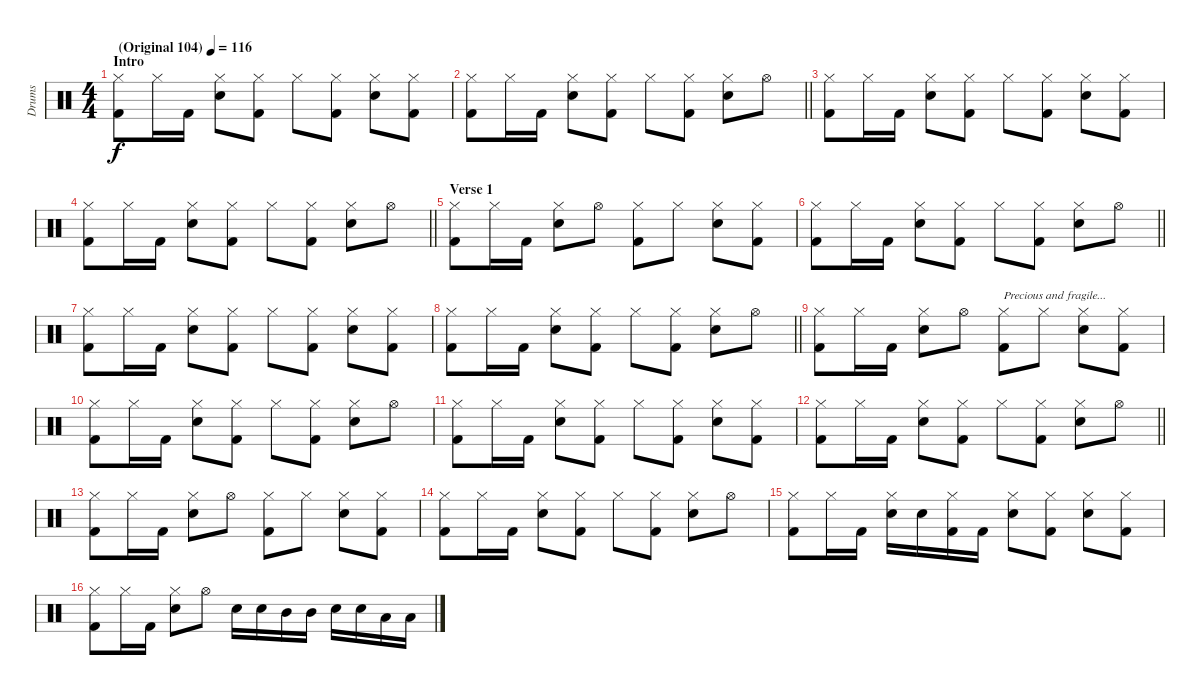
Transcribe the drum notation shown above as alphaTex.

\track ("Drums" "Drums") {instrument percussion}
\staff {score}
\articulation defaults
\ts (4 4)
\section ("" "Intro")
\tempo (116 "(Original 104)")
\clef neutral
\ks c
("Hi-Hat (closed)" "Kick (hit) 2").8{dy f} "Hi-Hat (closed)".16 "Kick (hit) 2".16 ("Hi-Hat (closed)" "Snare (hit) 2").8 ("Hi-Hat (closed)" "Kick (hit) 2").8 "Hi-Hat (closed)".8 ("Hi-Hat (closed)" "Kick (hit) 2").8 ("Hi-Hat (closed)" "Snare (hit) 2").8 ("Hi-Hat (closed)" "Kick (hit) 2").8 |
\barLineRight lightlight
("Hi-Hat (closed)" "Kick (hit) 2").8 "Hi-Hat (closed)".16 "Kick (hit) 2".16 ("Hi-Hat (closed)" "Snare (hit) 2").8 ("Hi-Hat (closed)" "Kick (hit) 2").8 "Hi-Hat (closed)".8 ("Hi-Hat (closed)" "Kick (hit) 2").8 ("Hi-Hat (closed)" "Snare (hit) 2").8 "Hi-Hat (open)".8 |
\section ("" "")
("Hi-Hat (closed)" "Kick (hit) 2").8 "Hi-Hat (closed)".16 "Kick (hit) 2".16 ("Hi-Hat (closed)" "Snare (hit) 2").8 ("Hi-Hat (closed)" "Kick (hit) 2").8 "Hi-Hat (closed)".8 ("Hi-Hat (closed)" "Kick (hit) 2").8 ("Hi-Hat (closed)" "Snare (hit) 2").8 ("Hi-Hat (closed)" "Kick (hit) 2").8 |
\barLineRight lightlight
("Hi-Hat (closed)" "Kick (hit) 2").8 "Hi-Hat (closed)".16 "Kick (hit) 2".16 ("Hi-Hat (closed)" "Snare (hit) 2").8 ("Hi-Hat (closed)" "Kick (hit) 2").8 "Hi-Hat (closed)".8 ("Hi-Hat (closed)" "Kick (hit) 2").8 ("Hi-Hat (closed)" "Snare (hit) 2").8 "Hi-Hat (open)".8 |
\section ("" "Verse 1")
("Hi-Hat (closed)" "Kick (hit) 2").8 "Hi-Hat (closed)".16 "Kick (hit) 2".16 ("Hi-Hat (closed)" "Snare (hit) 2").8 "Hi-Hat (open)".8 ("Hi-Hat (closed)" "Kick (hit) 2").8 "Hi-Hat (closed)".8 ("Hi-Hat (closed)" "Snare (hit) 2").8 ("Hi-Hat (closed)" "Kick (hit) 2").8 |
\barLineRight lightlight
("Hi-Hat (closed)" "Kick (hit) 2").8 "Hi-Hat (closed)".16 "Kick (hit) 2".16 ("Hi-Hat (closed)" "Snare (hit) 2").8 ("Hi-Hat (closed)" "Kick (hit) 2").8 "Hi-Hat (closed)".8 ("Hi-Hat (closed)" "Kick (hit) 2").8 ("Hi-Hat (closed)" "Snare (hit) 2").8 "Hi-Hat (open)".8 |
("Hi-Hat (closed)" "Kick (hit) 2").8 "Hi-Hat (closed)".16 "Kick (hit) 2".16 ("Hi-Hat (closed)" "Snare (hit) 2").8 ("Hi-Hat (closed)" "Kick (hit) 2").8 "Hi-Hat (closed)".8 ("Hi-Hat (closed)" "Kick (hit) 2").8 ("Hi-Hat (closed)" "Snare (hit) 2").8 ("Hi-Hat (closed)" "Kick (hit) 2").8 |
\barLineRight lightlight
("Hi-Hat (closed)" "Kick (hit) 2").8 "Hi-Hat (closed)".16 "Kick (hit) 2".16 ("Hi-Hat (closed)" "Snare (hit) 2").8 ("Hi-Hat (closed)" "Kick (hit) 2").8 "Hi-Hat (closed)".8 ("Hi-Hat (closed)" "Kick (hit) 2").8 ("Hi-Hat (closed)" "Snare (hit) 2").8 "Hi-Hat (open)".8 |
\section ("" "")
("Hi-Hat (closed)" "Kick (hit) 2").8 "Hi-Hat (closed)".16 "Kick (hit) 2".16 ("Hi-Hat (closed)" "Snare (hit) 2").8 "Hi-Hat (open)".8 ("Hi-Hat (closed)" "Kick (hit) 2").8{txt "Precious and fragile..."} "Hi-Hat (closed)".8 ("Hi-Hat (closed)" "Snare (hit) 2").8 ("Hi-Hat (closed)" "Kick (hit) 2").8 |
("Hi-Hat (closed)" "Kick (hit) 2").8 "Hi-Hat (closed)".16 "Kick (hit) 2".16 ("Hi-Hat (closed)" "Snare (hit) 2").8 ("Hi-Hat (closed)" "Kick (hit) 2").8 "Hi-Hat (closed)".8 ("Hi-Hat (closed)" "Kick (hit) 2").8 ("Hi-Hat (closed)" "Snare (hit) 2").8 "Hi-Hat (open)".8 |
("Hi-Hat (closed)" "Kick (hit) 2").8 "Hi-Hat (closed)".16 "Kick (hit) 2".16 ("Hi-Hat (closed)" "Snare (hit) 2").8 ("Hi-Hat (closed)" "Kick (hit) 2").8 "Hi-Hat (closed)".8 ("Hi-Hat (closed)" "Kick (hit) 2").8 ("Hi-Hat (closed)" "Snare (hit) 2").8 ("Hi-Hat (closed)" "Kick (hit) 2").8 |
\barLineRight lightlight
("Hi-Hat (closed)" "Kick (hit) 2").8 "Hi-Hat (closed)".16 "Kick (hit) 2".16 ("Hi-Hat (closed)" "Snare (hit) 2").8 ("Hi-Hat (closed)" "Kick (hit) 2").8 "Hi-Hat (closed)".8 ("Hi-Hat (closed)" "Kick (hit) 2").8 ("Hi-Hat (closed)" "Snare (hit) 2").8 "Hi-Hat (open)".8 |
("Hi-Hat (closed)" "Kick (hit) 2").8 "Hi-Hat (closed)".16 "Kick (hit) 2".16 ("Hi-Hat (closed)" "Snare (hit) 2").8 "Hi-Hat (open)".8 ("Hi-Hat (closed)" "Kick (hit) 2").8 "Hi-Hat (closed)".8 ("Hi-Hat (closed)" "Snare (hit) 2").8 ("Hi-Hat (closed)" "Kick (hit) 2").8 |
("Hi-Hat (closed)" "Kick (hit) 2").8 "Hi-Hat (closed)".16 "Kick (hit) 2".16 ("Hi-Hat (closed)" "Snare (hit) 2").8 ("Hi-Hat (closed)" "Kick (hit) 2").8 "Hi-Hat (closed)".8 ("Hi-Hat (closed)" "Kick (hit) 2").8 ("Hi-Hat (closed)" "Snare (hit) 2").8 "Hi-Hat (open)".8 |
("Hi-Hat (closed)" "Kick (hit) 2").8 "Hi-Hat (closed)".16 "Kick (hit) 2".16 ("Hi-Hat (closed)" "Snare (hit) 2").16 "Snare (hit) 2".16 ("Hi-Hat (closed)" "Kick (hit) 2").16 "Kick (hit) 2".16 ("Hi-Hat (closed)" "Snare (hit) 2").8 ("Hi-Hat (closed)" "Kick (hit) 2").8 ("Hi-Hat (closed)" "Snare (hit) 2").8 ("Hi-Hat (closed)" "Kick (hit) 2").8 |
("Hi-Hat (closed)" "Kick (hit) 2").8 "Hi-Hat (closed)".16 "Kick (hit) 2".16 ("Hi-Hat (closed)" "Snare (hit) 2").8 "Hi-Hat (open)".8 "Snare (hit) 2".16 "Snare (hit) 2".16 "Mid Tom (hit)".16 "Mid Tom (hit)".16 "Snare (hit) 2".16 "Snare (hit) 2".16 "Low Floor Tom (hit)".16 "Low Floor Tom (hit)".16
